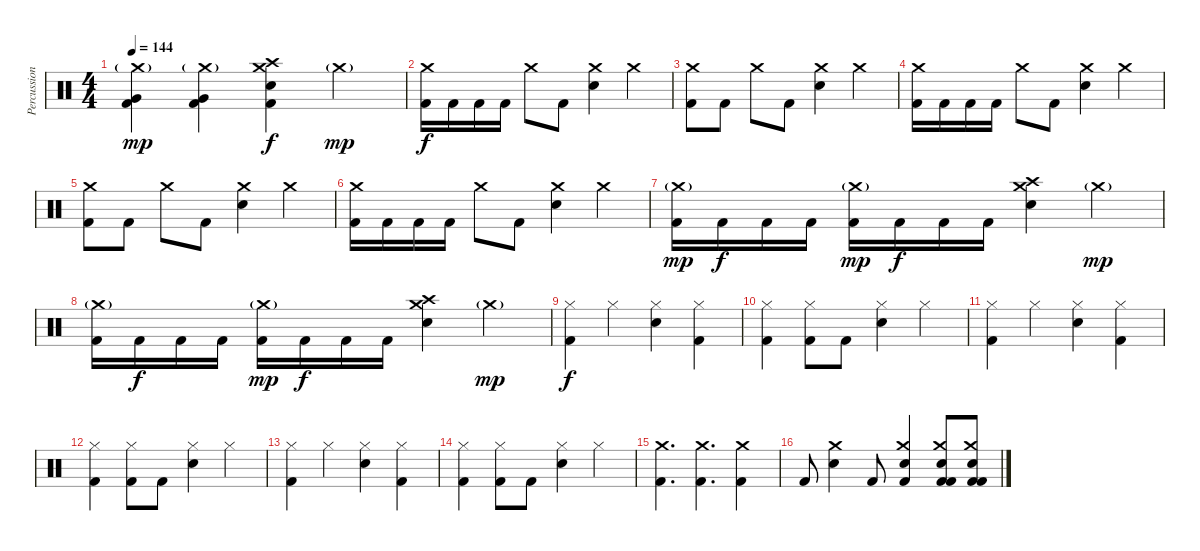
\track ("Percussion" "Percussion") {instrument percussion}
\staff {score}
\articulation defaults
\ts (4 4)
\tempo 144
\clef neutral
\ks c
("Kick (hit) 2" "Very Low Tom (hit)" "Crash medium (hit)"{g}).4{dy mp} ("Kick (hit) 2" "Very Low Tom (hit)" "Crash medium (hit)"{g}).4 ("Electric Snare (hit)" "Kick (hit) 2" "Crash medium (hit)" "Crash high (hit)").4{dy f} "Crash medium (hit)"{g}.4{dy mp} |
("Kick (hit) 2" "Crash medium (hit)").16{dy f} "Kick (hit) 2".16 "Kick (hit) 2".16 "Kick (hit) 2".16 "Crash medium (hit)".8 "Kick (hit) 2".8 ("Electric Snare (hit)" "Crash medium (hit)").4 "Crash medium (hit)".4 |
("Kick (hit) 2" "Crash medium (hit)").8 "Kick (hit) 2".8 "Crash medium (hit)".8 "Kick (hit) 2".8 ("Electric Snare (hit)" "Crash medium (hit)").4 "Crash medium (hit)".4 |
("Kick (hit) 2" "Crash medium (hit)").16 "Kick (hit) 2".16 "Kick (hit) 2".16 "Kick (hit) 2".16 "Crash medium (hit)".8 "Kick (hit) 2".8 ("Electric Snare (hit)" "Crash medium (hit)").4 "Crash medium (hit)".4 |
("Kick (hit) 2" "Crash medium (hit)").8 "Kick (hit) 2".8 "Crash medium (hit)".8 "Kick (hit) 2".8 ("Electric Snare (hit)" "Crash medium (hit)").4 "Crash medium (hit)".4 |
("Kick (hit) 2" "Crash medium (hit)").16 "Kick (hit) 2".16 "Kick (hit) 2".16 "Kick (hit) 2".16 "Crash medium (hit)".8 "Kick (hit) 2".8 ("Electric Snare (hit)" "Crash medium (hit)").4 "Crash medium (hit)".4 |
("Kick (hit) 2" "Crash medium (hit)"{g}).16{dy mp} "Kick (hit) 2".16{dy f} "Kick (hit) 2".16 "Kick (hit) 2".16 ("Kick (hit) 2" "Crash medium (hit)"{g}).16{dy mp} "Kick (hit) 2".16{dy f} "Kick (hit) 2".16 "Kick (hit) 2".16 ("Electric Snare (hit)" "Crash medium (hit)" "Crash high (hit)").4 "Crash medium (hit)"{g}.4{dy mp} |
("Kick (hit) 2" "Crash medium (hit)"{g}).16 "Kick (hit) 2".16{dy f} "Kick (hit) 2".16 "Kick (hit) 2".16 ("Kick (hit) 2" "Crash medium (hit)"{g}).16{dy mp} "Kick (hit) 2".16{dy f} "Kick (hit) 2".16 "Kick (hit) 2".16 ("Electric Snare (hit)" "Crash medium (hit)" "Crash high (hit)").4 "Crash medium (hit)"{g}.4{dy mp} |
("Hi-Hat (closed)" "Kick (hit) 2").4{dy f} "Hi-Hat (closed)".4 ("Hi-Hat (closed)" "Electric Snare (hit)").4 ("Hi-Hat (closed)" "Kick (hit) 2").4 |
("Hi-Hat (closed)" "Kick (hit) 2").4 ("Hi-Hat (closed)" "Kick (hit) 2").8 "Kick (hit) 2".8 ("Hi-Hat (closed)" "Electric Snare (hit)").4 "Hi-Hat (closed)".4 |
("Hi-Hat (closed)" "Kick (hit) 2").4 "Hi-Hat (closed)".4 ("Hi-Hat (closed)" "Electric Snare (hit)").4 ("Hi-Hat (closed)" "Kick (hit) 2").4 |
("Hi-Hat (closed)" "Kick (hit) 2").4 ("Hi-Hat (closed)" "Kick (hit) 2").8 "Kick (hit) 2".8 ("Hi-Hat (closed)" "Electric Snare (hit)").4 "Hi-Hat (closed)".4 |
("Hi-Hat (closed)" "Kick (hit) 2").4 "Hi-Hat (closed)".4 ("Hi-Hat (closed)" "Electric Snare (hit)").4 ("Hi-Hat (closed)" "Kick (hit) 2").4 |
("Hi-Hat (closed)" "Kick (hit) 2").4 ("Hi-Hat (closed)" "Kick (hit) 2").8 "Kick (hit) 2".8 ("Hi-Hat (closed)" "Electric Snare (hit)").4 "Hi-Hat (closed)".4 |
("Crash medium (hit)" "Kick (hit) 2").4{d} ("Crash medium (hit)" "Kick (hit) 2").4{d} ("Crash medium (hit)" "Kick (hit) 2").4 |
"Kick (hit) 2".8 ("Electric Snare (hit)" "Crash medium (hit)").4 "Kick (hit) 2".8 ("Electric Snare (hit)" "Kick (hit) 2" "Crash medium (hit)").4 ("Electric Snare (hit)" "Kick (hit) 2" "Crash medium (hit)" "Kick (hit) 2").8 ("Electric Snare (hit)" "Kick (hit) 2" "Crash medium (hit)" "Kick (hit) 2").8
